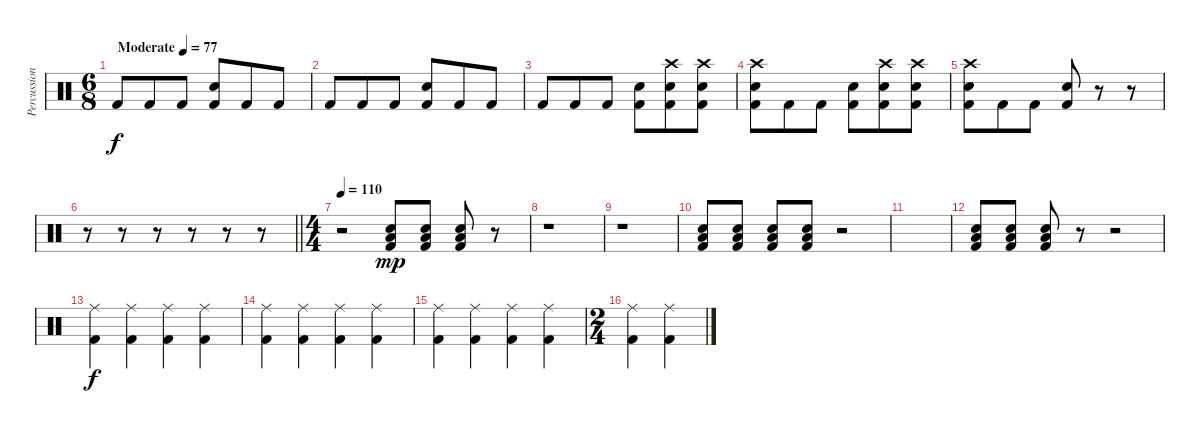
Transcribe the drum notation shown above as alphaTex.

\track ("Percussion" "Percussion") {instrument percussion}
\staff {score}
\articulation defaults
\ts (6 8)
\tempo (77 "Moderate")
\clef neutral
\ks c "Kick (hit) 2".8{dy f} "Kick (hit) 2".8 "Kick (hit) 2".8
("Snare (hit) 2" "Kick (hit) 2").8 "Kick (hit) 2".8 "Kick (hit) 2".8 |
"Kick (hit) 2".8 "Kick (hit) 2".8 "Kick (hit) 2".8 ("Snare (hit) 2" "Kick (hit) 2").8 "Kick (hit) 2".8 "Kick (hit) 2".8 |
"Kick (hit) 2".8 "Kick (hit) 2".8 "Kick (hit) 2".8 ("Snare (hit) 2" "Kick (hit) 2").8 ("Crash high (hit)" "Snare (hit) 2" "Kick (hit) 2").8 ("Crash high (hit)" "Snare (hit) 2" "Kick (hit) 2").8 |
("Crash high (hit)" "Snare (hit) 2" "Kick (hit) 2").8 "Kick (hit) 2".8 "Kick (hit) 2".8 ("Snare (hit) 2" "Kick (hit) 2").8 ("Crash high (hit)" "Snare (hit) 2" "Kick (hit) 2").8 ("Crash high (hit)" "Snare (hit) 2" "Kick (hit) 2").8 |
("Crash high (hit)" "Snare (hit) 2" "Kick (hit) 2").8 "Kick (hit) 2".8 "Kick (hit) 2".8 ("Snare (hit) 2" "Kick (hit) 2").8 r.8 r.8 |
\barLineRight lightlight
r.8 r.8 r.8 r.8 r.8 r.8 |
\ts (4 4)
\tempo 110
r.2 ("Snare (hit) 2" "Low Floor Tom (hit)" "Kick (hit) 2").8{dy mp} ("Snare (hit) 2" "Low Floor Tom (hit)" "Kick (hit) 2").8 ("Snare (hit) 2" "Low Floor Tom (hit)" "Kick (hit) 2").8 r.8 |
r.1 |
r.1 |
("Snare (hit) 2" "Low Floor Tom (hit)" "Kick (hit) 2").8 ("Snare (hit) 2" "Low Floor Tom (hit)" "Kick (hit) 2").8 ("Snare (hit) 2" "Low Floor Tom (hit)" "Kick (hit) 2").8 ("Snare (hit) 2" "Low Floor Tom (hit)" "Kick (hit) 2").8 r.2 |
|
("Low Floor Tom (hit)" "Snare (hit) 2" "Kick (hit) 2").8 ("Low Floor Tom (hit)" "Snare (hit) 2" "Kick (hit) 2").8 ("Low Floor Tom (hit)" "Snare (hit) 2" "Kick (hit) 2").8 r.8 r.2 |
("Ride (middle)" "Kick (hit) 2").4{dy f} ("Ride (middle)" "Kick (hit) 2").4 ("Ride (middle)" "Kick (hit) 2").4 ("Ride (middle)" "Kick (hit) 2").4 |
("Ride (middle)" "Kick (hit) 2").4 ("Ride (middle)" "Kick (hit) 2").4 ("Ride (middle)" "Kick (hit) 2").4 ("Ride (middle)" "Kick (hit) 2").4 |
("Ride (middle)" "Kick (hit) 2").4 ("Ride (middle)" "Kick (hit) 2").4 ("Ride (middle)" "Kick (hit) 2").4 ("Ride (middle)" "Kick (hit) 2").4 |
\ts (2 4)
("Ride (middle)" "Kick (hit) 2").4 ("Ride (middle)" "Kick (hit) 2").4
